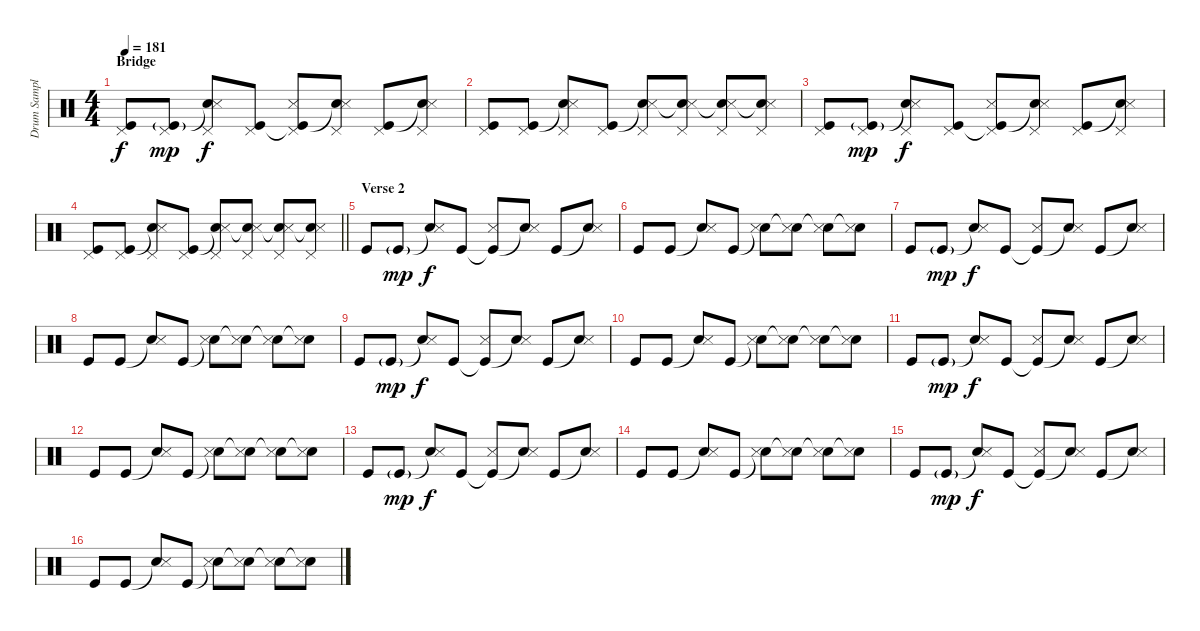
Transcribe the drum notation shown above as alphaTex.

\track ("Drum Sample" "Drum Sampl") {instrument percussion}
\staff {score}
\articulation defaults
\ts (4 4)
\section ("" "Bridge")
\tempo 181
\clef neutral
\ks c
("Kick (hit)" "Pedal Hi-Hat (hit)").8{dy f} ("Kick (hit)"{g} "Pedal Hi-Hat (hit)").8{dy mp} ("Snare (hit)"{t} "Snare (side stick) 3" "Pedal Hi-Hat (hit)").8{dy f} ("Kick (hit)" "Pedal Hi-Hat (hit)").8 ("Kick (hit)"{t} "Metronome (hit)" "Pedal Hi-Hat (hit)").8 ("Snare (hit)"{t} "Snare (side stick) 3" "Pedal Hi-Hat (hit)").8 ("Kick (hit)" "Pedal Hi-Hat (hit)").8 ("Snare (hit)"{t} "Snare (side stick) 3" "Pedal Hi-Hat (hit)").8 |
("Kick (hit)" "Pedal Hi-Hat (hit)").8 ("Kick (hit)" "Pedal Hi-Hat (hit)").8 ("Snare (hit)"{t} "Snare (side stick) 3" "Pedal Hi-Hat (hit)").8 ("Kick (hit)" "Pedal Hi-Hat (hit)").8 ("Snare (hit)"{t} "Metronome (hit)" "Pedal Hi-Hat (hit)").8 ("Snare (hit)"{t} "Metronome (hit)" "Pedal Hi-Hat (hit)").8 ("Snare (hit)"{t} "Snare (side stick) 3" "Pedal Hi-Hat (hit)").8 ("Snare (hit)"{t} "Snare (side stick) 3" "Pedal Hi-Hat (hit)").8 |
("Kick (hit)" "Pedal Hi-Hat (hit)").8 ("Kick (hit)"{g} "Pedal Hi-Hat (hit)").8{dy mp} ("Snare (hit)"{t} "Snare (side stick) 3" "Pedal Hi-Hat (hit)").8{dy f} ("Kick (hit)" "Pedal Hi-Hat (hit)").8 ("Kick (hit)"{t} "Metronome (hit)" "Pedal Hi-Hat (hit)").8 ("Snare (hit)"{t} "Snare (side stick) 3" "Pedal Hi-Hat (hit)").8 ("Kick (hit)" "Pedal Hi-Hat (hit)").8 ("Snare (hit)"{t} "Snare (side stick) 3" "Pedal Hi-Hat (hit)").8 |
\barLineRight lightlight
("Kick (hit)" "Pedal Hi-Hat (hit)").8 ("Kick (hit)" "Pedal Hi-Hat (hit)").8 ("Snare (hit)"{t} "Snare (side stick) 3" "Pedal Hi-Hat (hit)").8 ("Kick (hit)" "Pedal Hi-Hat (hit)").8 ("Snare (hit)"{t} "Metronome (hit)" "Pedal Hi-Hat (hit)").8 ("Snare (hit)"{t} "Metronome (hit)" "Pedal Hi-Hat (hit)").8 ("Snare (hit)"{t} "Snare (side stick) 3" "Pedal Hi-Hat (hit)").8 ("Snare (hit)"{t} "Snare (side stick) 3" "Pedal Hi-Hat (hit)").8 |
\section ("" "Verse 2")
"Kick (hit)".8 "Kick (hit)"{g}.8{dy mp} ("Snare (hit)"{t} "Snare (side stick) 3").8{dy f} "Kick (hit)".8 ("Kick (hit)"{t} "Metronome (hit)").8 ("Snare (hit)"{t} "Snare (side stick) 3").8 "Kick (hit)".8 ("Snare (hit)"{t} "Snare (side stick) 3").8 |
"Kick (hit)".8 "Kick (hit)".8 ("Snare (hit)"{t} "Snare (side stick) 3").8 "Kick (hit)".8 ("Snare (hit)"{t} "Metronome (hit)").8 ("Snare (hit)"{t} "Metronome (hit)").8 ("Snare (hit)"{t} "Snare (side stick) 3").8 ("Snare (hit)"{t} "Snare (side stick) 3").8 |
"Kick (hit)".8 "Kick (hit)"{g}.8{dy mp} ("Snare (hit)"{t} "Snare (side stick) 3").8{dy f} "Kick (hit)".8 ("Kick (hit)"{t} "Metronome (hit)").8 ("Snare (hit)"{t} "Snare (side stick) 3").8 "Kick (hit)".8 ("Snare (hit)"{t} "Snare (side stick) 3").8 |
"Kick (hit)".8 "Kick (hit)".8 ("Snare (hit)"{t} "Snare (side stick) 3").8 "Kick (hit)".8 ("Snare (hit)"{t} "Metronome (hit)").8 ("Snare (hit)"{t} "Metronome (hit)").8 ("Snare (hit)"{t} "Snare (side stick) 3").8 ("Snare (hit)"{t} "Snare (side stick) 3").8 |
"Kick (hit)".8 "Kick (hit)"{g}.8{dy mp} ("Snare (hit)"{t} "Snare (side stick) 3").8{dy f} "Kick (hit)".8 ("Kick (hit)"{t} "Metronome (hit)").8 ("Snare (hit)"{t} "Snare (side stick) 3").8 "Kick (hit)".8 ("Snare (hit)"{t} "Snare (side stick) 3").8 |
"Kick (hit)".8 "Kick (hit)".8 ("Snare (hit)"{t} "Snare (side stick) 3").8 "Kick (hit)".8 ("Snare (hit)"{t} "Metronome (hit)").8 ("Snare (hit)"{t} "Metronome (hit)").8 ("Snare (hit)"{t} "Snare (side stick) 3").8 ("Snare (hit)"{t} "Snare (side stick) 3").8 |
"Kick (hit)".8 "Kick (hit)"{g}.8{dy mp} ("Snare (hit)"{t} "Snare (side stick) 3").8{dy f} "Kick (hit)".8 ("Kick (hit)"{t} "Metronome (hit)").8 ("Snare (hit)"{t} "Snare (side stick) 3").8 "Kick (hit)".8 ("Snare (hit)"{t} "Snare (side stick) 3").8 |
"Kick (hit)".8 "Kick (hit)".8 ("Snare (hit)"{t} "Snare (side stick) 3").8 "Kick (hit)".8 ("Snare (hit)"{t} "Metronome (hit)").8 ("Snare (hit)"{t} "Metronome (hit)").8 ("Snare (hit)"{t} "Snare (side stick) 3").8 ("Snare (hit)"{t} "Snare (side stick) 3").8 |
"Kick (hit)".8 "Kick (hit)"{g}.8{dy mp} ("Snare (hit)"{t} "Snare (side stick) 3").8{dy f} "Kick (hit)".8 ("Kick (hit)"{t} "Metronome (hit)").8 ("Snare (hit)"{t} "Snare (side stick) 3").8 "Kick (hit)".8 ("Snare (hit)"{t} "Snare (side stick) 3").8 |
"Kick (hit)".8 "Kick (hit)".8 ("Snare (hit)"{t} "Snare (side stick) 3").8 "Kick (hit)".8 ("Snare (hit)"{t} "Metronome (hit)").8 ("Snare (hit)"{t} "Metronome (hit)").8 ("Snare (hit)"{t} "Snare (side stick) 3").8 ("Snare (hit)"{t} "Snare (side stick) 3").8 |
"Kick (hit)".8 "Kick (hit)"{g}.8{dy mp} ("Snare (hit)"{t} "Snare (side stick) 3").8{dy f} "Kick (hit)".8 ("Kick (hit)"{t} "Metronome (hit)").8 ("Snare (hit)"{t} "Snare (side stick) 3").8 "Kick (hit)".8 ("Snare (hit)"{t} "Snare (side stick) 3").8 |
"Kick (hit)".8 "Kick (hit)".8 ("Snare (hit)"{t} "Snare (side stick) 3").8 "Kick (hit)".8 ("Snare (hit)"{t} "Metronome (hit)").8 ("Snare (hit)"{t} "Metronome (hit)").8 ("Snare (hit)"{t} "Snare (side stick) 3").8 ("Snare (hit)"{t} "Snare (side stick) 3").8
